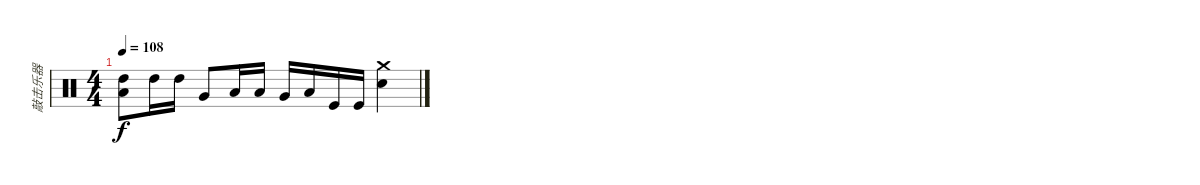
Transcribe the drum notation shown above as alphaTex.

\track ("敲击乐器" "敲击乐器") {instrument percussion}
\staff {score}
\articulation defaults
\ts (4 4)
\tempo 108
\clef neutral
\ks c
("Low Tom (hit)" "High Tom (hit)").8{dy f} "High Tom (hit)".16 "High Tom (hit)".16 "Very Low Tom (hit)".8 "Low Tom (hit)".16 "Low Tom (hit)".16 "Very Low Tom (hit)".16 "Low Floor Tom (hit)".16 "Kick (hit)".16 "Kick (hit)".16 ("Crash medium (hit)" "Electric Snare (hit)").4
